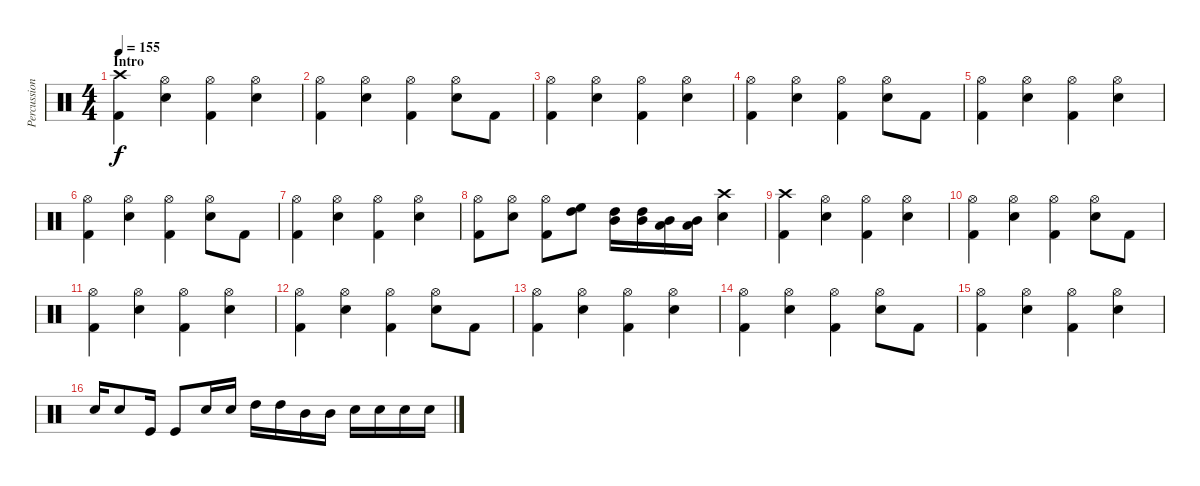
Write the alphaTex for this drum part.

\track ("Percussion" "Percussion") {instrument percussion}
\staff {score}
\articulation defaults
\ts (4 4)
\section ("" "Intro")
\tempo 155
\clef neutral
\ks c
("Crash high (hit)" "Kick (hit) 2").4{dy f} ("Hi-Hat (open)" "Electric Snare (hit)").4 ("Hi-Hat (open)" "Kick (hit) 2").4 ("Hi-Hat (open)" "Electric Snare (hit)").4 |
("Hi-Hat (open)" "Kick (hit) 2").4 ("Hi-Hat (open)" "Electric Snare (hit)").4 ("Hi-Hat (open)" "Kick (hit) 2").4 ("Hi-Hat (open)" "Electric Snare (hit)").8 "Kick (hit) 2".8 |
("Hi-Hat (open)" "Kick (hit) 2").4 ("Hi-Hat (open)" "Electric Snare (hit)").4 ("Hi-Hat (open)" "Kick (hit) 2").4 ("Hi-Hat (open)" "Electric Snare (hit)").4 |
("Hi-Hat (open)" "Kick (hit) 2").4 ("Hi-Hat (open)" "Electric Snare (hit)").4 ("Hi-Hat (open)" "Kick (hit) 2").4 ("Hi-Hat (open)" "Electric Snare (hit)").8 "Kick (hit) 2".8 |
("Hi-Hat (open)" "Kick (hit) 2").4 ("Hi-Hat (open)" "Electric Snare (hit)").4 ("Hi-Hat (open)" "Kick (hit) 2").4 ("Hi-Hat (open)" "Electric Snare (hit)").4 |
("Hi-Hat (open)" "Kick (hit) 2").4 ("Hi-Hat (open)" "Electric Snare (hit)").4 ("Hi-Hat (open)" "Kick (hit) 2").4 ("Hi-Hat (open)" "Electric Snare (hit)").8 "Kick (hit) 2".8 |
("Hi-Hat (open)" "Kick (hit) 2").4 ("Hi-Hat (open)" "Electric Snare (hit)").4 ("Hi-Hat (open)" "Kick (hit) 2").4 ("Hi-Hat (open)" "Electric Snare (hit)").4 |
("Hi-Hat (open)" "Kick (hit) 2").8 ("Hi-Hat (open)" "Electric Snare (hit)").8 ("Hi-Hat (open)" "Kick (hit) 2").8 ("High Floor Tom (hit)" "High Tom (hit)").8 ("High Tom (hit)" "Mid Tom (hit)").16 ("High Tom (hit)" "Mid Tom (hit)").16 ("Mid Tom (hit)" "Low Tom (hit)").16 ("Mid Tom (hit)" "Low Tom (hit)").16 ("Crash high (hit)" "Electric Snare (hit)").4 |
("Crash high (hit)" "Kick (hit) 2").4 ("Hi-Hat (open)" "Electric Snare (hit)").4 ("Hi-Hat (open)" "Kick (hit) 2").4 ("Hi-Hat (open)" "Electric Snare (hit)").4 |
("Hi-Hat (open)" "Kick (hit) 2").4 ("Hi-Hat (open)" "Electric Snare (hit)").4 ("Hi-Hat (open)" "Kick (hit) 2").4 ("Hi-Hat (open)" "Electric Snare (hit)").8 "Kick (hit) 2".8 |
("Hi-Hat (open)" "Kick (hit) 2").4 ("Hi-Hat (open)" "Electric Snare (hit)").4 ("Hi-Hat (open)" "Kick (hit) 2").4 ("Hi-Hat (open)" "Electric Snare (hit)").4 |
("Hi-Hat (open)" "Kick (hit) 2").4 ("Hi-Hat (open)" "Electric Snare (hit)").4 ("Hi-Hat (open)" "Kick (hit) 2").4 ("Hi-Hat (open)" "Electric Snare (hit)").8 "Kick (hit) 2".8 |
("Hi-Hat (open)" "Kick (hit) 2").4 ("Hi-Hat (open)" "Electric Snare (hit)").4 ("Hi-Hat (open)" "Kick (hit) 2").4 ("Hi-Hat (open)" "Electric Snare (hit)").4 |
("Hi-Hat (open)" "Kick (hit) 2").4 ("Hi-Hat (open)" "Electric Snare (hit)").4 ("Hi-Hat (open)" "Kick (hit) 2").4 ("Hi-Hat (open)" "Electric Snare (hit)").8 "Kick (hit) 2".8 |
("Hi-Hat (open)" "Kick (hit) 2").4 ("Hi-Hat (open)" "Electric Snare (hit)").4 ("Hi-Hat (open)" "Kick (hit) 2").4 ("Hi-Hat (open)" "Electric Snare (hit)").4 |
"Electric Snare (hit)".16 "Electric Snare (hit)".8 "Kick (hit)".16 "Kick (hit)".8 "Electric Snare (hit)".16 "Electric Snare (hit)".16 "High Tom (hit)".16 "High Tom (hit)".16 "Mid Tom (hit)".16 "Mid Tom (hit)".16 "Electric Snare (hit)".16 "Electric Snare (hit)".16 "Electric Snare (hit)".16 "Electric Snare (hit)".16
